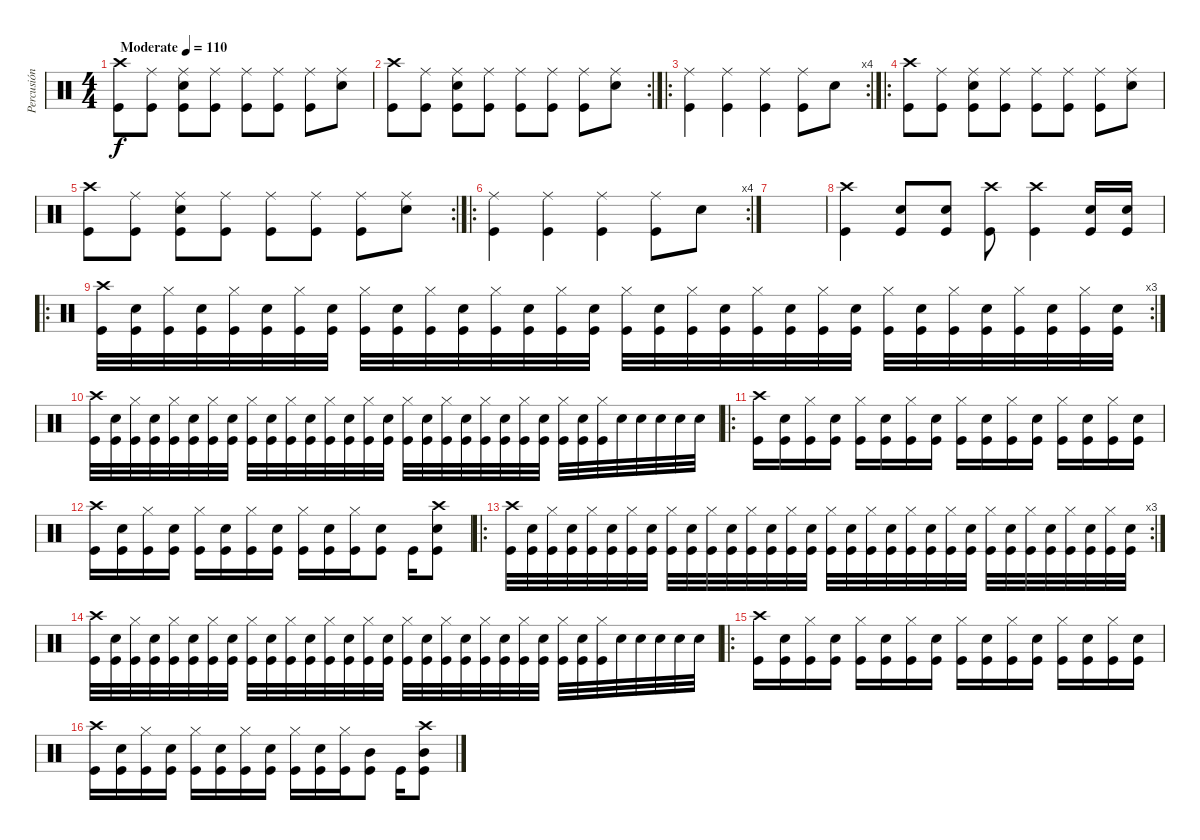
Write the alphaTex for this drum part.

\track ("Percusión" "Percusión") {instrument percussion}
\staff {score}
\articulation defaults
\ts (4 4)
\tempo (110 "Moderate")
\clef neutral
\ks c
("Crash high (hit)" "Kick (hit)").8{dy f} ("Ride (middle)" "Kick (hit)").8 ("Ride (middle)" "Electric Snare (hit)" "Kick (hit)").8 ("Ride (middle)" "Kick (hit)").8 ("Ride (middle)" "Kick (hit)").8 ("Ride (middle)" "Kick (hit)").8 ("Ride (middle)" "Kick (hit)").8 ("Ride (middle)" "Electric Snare (hit)").8 |
\rc 2
("Crash high (hit)" "Kick (hit)").8 ("Ride (middle)" "Kick (hit)").8 ("Ride (middle)" "Electric Snare (hit)" "Kick (hit)").8 ("Ride (middle)" "Kick (hit)").8 ("Ride (middle)" "Kick (hit)").8 ("Ride (middle)" "Kick (hit)").8 ("Ride (middle)" "Kick (hit)").8 ("Ride (middle)" "Electric Snare (hit)").8 |
\ro
\rc 4
("Ride (middle)" "Kick (hit)").4 ("Ride (middle)" "Kick (hit)").4 ("Ride (middle)" "Kick (hit)").4 ("Ride (middle)" "Kick (hit)").8 "Electric Snare (hit)".8 |
\ro
("Crash high (hit)" "Kick (hit)").8 ("Ride (middle)" "Kick (hit)").8 ("Ride (middle)" "Electric Snare (hit)" "Kick (hit)").8 ("Ride (middle)" "Kick (hit)").8 ("Ride (middle)" "Kick (hit)").8 ("Ride (middle)" "Kick (hit)").8 ("Ride (middle)" "Kick (hit)").8 ("Ride (middle)" "Electric Snare (hit)").8 |
\rc 2
("Crash high (hit)" "Kick (hit)").8 ("Ride (middle)" "Kick (hit)").8 ("Ride (middle)" "Electric Snare (hit)" "Kick (hit)").8 ("Ride (middle)" "Kick (hit)").8 ("Ride (middle)" "Kick (hit)").8 ("Ride (middle)" "Kick (hit)").8 ("Ride (middle)" "Kick (hit)").8 ("Ride (middle)" "Electric Snare (hit)").8 |
\ro
\rc 4
("Ride (middle)" "Kick (hit)").4 ("Ride (middle)" "Kick (hit)").4 ("Ride (middle)" "Kick (hit)").4 ("Ride (middle)" "Kick (hit)").8 "Electric Snare (hit)".8 |
|
("Crash high (hit)" "Kick (hit)").4 ("Electric Snare (hit)" "Kick (hit)").8 ("Electric Snare (hit)" "Kick (hit)").8 ("Crash high (hit)" "Kick (hit)").8 ("Crash high (hit)" "Kick (hit)").4 ("Electric Snare (hit)" "Kick (hit)").16 ("Electric Snare (hit)" "Kick (hit)").16 |
\ro
\rc 3
("Crash high (hit)" "Kick (hit)").32 ("Electric Snare (hit)" "Kick (hit)").32 ("Hi-Hat (closed)" "Kick (hit)").32 ("Electric Snare (hit)" "Kick (hit)").32 ("Hi-Hat (closed)" "Kick (hit)").32 ("Electric Snare (hit)" "Kick (hit)").32 ("Hi-Hat (closed)" "Kick (hit)").32 ("Electric Snare (hit)" "Kick (hit)").32 ("Hi-Hat (closed)" "Kick (hit)").32 ("Electric Snare (hit)" "Kick (hit)").32 ("Hi-Hat (closed)" "Kick (hit)").32 ("Electric Snare (hit)" "Kick (hit)").32 ("Hi-Hat (closed)" "Kick (hit)").32 ("Electric Snare (hit)" "Kick (hit)").32 ("Hi-Hat (closed)" "Kick (hit)").32 ("Electric Snare (hit)" "Kick (hit)").32 ("Hi-Hat (closed)" "Kick (hit)").32 ("Electric Snare (hit)" "Kick (hit)").32 ("Hi-Hat (closed)" "Kick (hit)").32 ("Electric Snare (hit)" "Kick (hit)").32 ("Hi-Hat (closed)" "Kick (hit)").32 ("Electric Snare (hit)" "Kick (hit)").32 ("Hi-Hat (closed)" "Kick (hit)").32 ("Electric Snare (hit)" "Kick (hit)").32 ("Hi-Hat (closed)" "Kick (hit)").32 ("Electric Snare (hit)" "Kick (hit)").32 ("Hi-Hat (closed)" "Kick (hit)").32 ("Electric Snare (hit)" "Kick (hit)").32 ("Hi-Hat (closed)" "Kick (hit)").32 ("Electric Snare (hit)" "Kick (hit)").32 ("Hi-Hat (closed)" "Kick (hit)").32 ("Electric Snare (hit)" "Kick (hit)").32 |
("Crash high (hit)" "Kick (hit)").32 ("Electric Snare (hit)" "Kick (hit)").32 ("Hi-Hat (closed)" "Kick (hit)").32 ("Electric Snare (hit)" "Kick (hit)").32 ("Hi-Hat (closed)" "Kick (hit)").32 ("Electric Snare (hit)" "Kick (hit)").32 ("Hi-Hat (closed)" "Kick (hit)").32 ("Electric Snare (hit)" "Kick (hit)").32 ("Hi-Hat (closed)" "Kick (hit)").32 ("Electric Snare (hit)" "Kick (hit)").32 ("Hi-Hat (closed)" "Kick (hit)").32 ("Electric Snare (hit)" "Kick (hit)").32 ("Hi-Hat (closed)" "Kick (hit)").32 ("Electric Snare (hit)" "Kick (hit)").32 ("Hi-Hat (closed)" "Kick (hit)").32 ("Electric Snare (hit)" "Kick (hit)").32 ("Hi-Hat (closed)" "Kick (hit)").32 ("Electric Snare (hit)" "Kick (hit)").32 ("Hi-Hat (closed)" "Kick (hit)").32 ("Electric Snare (hit)" "Kick (hit)").32 ("Hi-Hat (closed)" "Kick (hit)").32 ("Electric Snare (hit)" "Kick (hit)").32 ("Hi-Hat (closed)" "Kick (hit)").32 ("Electric Snare (hit)" "Kick (hit)").32 ("Hi-Hat (closed)" "Kick (hit)").32 ("Electric Snare (hit)" "Kick (hit)").32 ("Hi-Hat (closed)" "Kick (hit)").32 "Electric Snare (hit)".32 "Electric Snare (hit)".32 "Electric Snare (hit)".32 "Electric Snare (hit)".32 "Electric Snare (hit)".32 |
\ro
("Crash high (hit)" "Kick (hit)").16 ("Electric Snare (hit)" "Kick (hit)").16 ("Hi-Hat (closed)" "Kick (hit)").16 ("Electric Snare (hit)" "Kick (hit)").16 ("Hi-Hat (closed)" "Kick (hit)").16 ("Electric Snare (hit)" "Kick (hit)").16 ("Hi-Hat (closed)" "Kick (hit)").16 ("Electric Snare (hit)" "Kick (hit)").16 ("Hi-Hat (closed)" "Kick (hit)").16 ("Electric Snare (hit)" "Kick (hit)").16 ("Hi-Hat (closed)" "Kick (hit)").16 ("Electric Snare (hit)" "Kick (hit)").16 ("Hi-Hat (closed)" "Kick (hit)").16 ("Electric Snare (hit)" "Kick (hit)").16 ("Hi-Hat (closed)" "Kick (hit)").16 ("Electric Snare (hit)" "Kick (hit)").16 |
("Crash high (hit)" "Kick (hit)").16 ("Electric Snare (hit)" "Kick (hit)").16 ("Hi-Hat (closed)" "Kick (hit)").16 ("Electric Snare (hit)" "Kick (hit)").16 ("Hi-Hat (closed)" "Kick (hit)").16 ("Electric Snare (hit)" "Kick (hit)").16 ("Hi-Hat (closed)" "Kick (hit)").16 ("Electric Snare (hit)" "Kick (hit)").16 ("Hi-Hat (closed)" "Kick (hit)").16 ("Electric Snare (hit)" "Kick (hit)").16 ("Hi-Hat (closed)" "Kick (hit)").16 ("Snare (hit) 2" "Kick (hit)").8 "Kick (hit)".16 ("Crash high (hit)" "Snare (hit) 2" "Kick (hit)").8 |
\ro
\rc 3
("Crash high (hit)" "Kick (hit)").32 ("Electric Snare (hit)" "Kick (hit)").32 ("Hi-Hat (closed)" "Kick (hit)").32 ("Electric Snare (hit)" "Kick (hit)").32 ("Hi-Hat (closed)" "Kick (hit)").32 ("Electric Snare (hit)" "Kick (hit)").32 ("Hi-Hat (closed)" "Kick (hit)").32 ("Electric Snare (hit)" "Kick (hit)").32 ("Hi-Hat (closed)" "Kick (hit)").32 ("Electric Snare (hit)" "Kick (hit)").32 ("Hi-Hat (closed)" "Kick (hit)").32 ("Electric Snare (hit)" "Kick (hit)").32 ("Hi-Hat (closed)" "Kick (hit)").32 ("Electric Snare (hit)" "Kick (hit)").32 ("Hi-Hat (closed)" "Kick (hit)").32 ("Electric Snare (hit)" "Kick (hit)").32 ("Hi-Hat (closed)" "Kick (hit)").32 ("Electric Snare (hit)" "Kick (hit)").32 ("Hi-Hat (closed)" "Kick (hit)").32 ("Electric Snare (hit)" "Kick (hit)").32 ("Hi-Hat (closed)" "Kick (hit)").32 ("Electric Snare (hit)" "Kick (hit)").32 ("Hi-Hat (closed)" "Kick (hit)").32 ("Electric Snare (hit)" "Kick (hit)").32 ("Hi-Hat (closed)" "Kick (hit)").32 ("Electric Snare (hit)" "Kick (hit)").32 ("Hi-Hat (closed)" "Kick (hit)").32 ("Electric Snare (hit)" "Kick (hit)").32 ("Hi-Hat (closed)" "Kick (hit)").32 ("Electric Snare (hit)" "Kick (hit)").32 ("Hi-Hat (closed)" "Kick (hit)").32 ("Electric Snare (hit)" "Kick (hit)").32 |
("Crash high (hit)" "Kick (hit)").32 ("Electric Snare (hit)" "Kick (hit)").32 ("Hi-Hat (closed)" "Kick (hit)").32 ("Electric Snare (hit)" "Kick (hit)").32 ("Hi-Hat (closed)" "Kick (hit)").32 ("Electric Snare (hit)" "Kick (hit)").32 ("Hi-Hat (closed)" "Kick (hit)").32 ("Electric Snare (hit)" "Kick (hit)").32 ("Hi-Hat (closed)" "Kick (hit)").32 ("Electric Snare (hit)" "Kick (hit)").32 ("Hi-Hat (closed)" "Kick (hit)").32 ("Electric Snare (hit)" "Kick (hit)").32 ("Hi-Hat (closed)" "Kick (hit)").32 ("Electric Snare (hit)" "Kick (hit)").32 ("Hi-Hat (closed)" "Kick (hit)").32 ("Electric Snare (hit)" "Kick (hit)").32 ("Hi-Hat (closed)" "Kick (hit)").32 ("Electric Snare (hit)" "Kick (hit)").32 ("Hi-Hat (closed)" "Kick (hit)").32 ("Electric Snare (hit)" "Kick (hit)").32 ("Hi-Hat (closed)" "Kick (hit)").32 ("Electric Snare (hit)" "Kick (hit)").32 ("Hi-Hat (closed)" "Kick (hit)").32 ("Electric Snare (hit)" "Kick (hit)").32 ("Hi-Hat (closed)" "Kick (hit)").32 ("Electric Snare (hit)" "Kick (hit)").32 ("Hi-Hat (closed)" "Kick (hit)").32 "Electric Snare (hit)".32 "Electric Snare (hit)".32 "Electric Snare (hit)".32 "Electric Snare (hit)".32 "Electric Snare (hit)".32 |
\ro
("Crash high (hit)" "Kick (hit)").16 ("Electric Snare (hit)" "Kick (hit)").16 ("Hi-Hat (closed)" "Kick (hit)").16 ("Electric Snare (hit)" "Kick (hit)").16 ("Hi-Hat (closed)" "Kick (hit)").16 ("Electric Snare (hit)" "Kick (hit)").16 ("Hi-Hat (closed)" "Kick (hit)").16 ("Electric Snare (hit)" "Kick (hit)").16 ("Hi-Hat (closed)" "Kick (hit)").16 ("Electric Snare (hit)" "Kick (hit)").16 ("Hi-Hat (closed)" "Kick (hit)").16 ("Electric Snare (hit)" "Kick (hit)").16 ("Hi-Hat (closed)" "Kick (hit)").16 ("Electric Snare (hit)" "Kick (hit)").16 ("Hi-Hat (closed)" "Kick (hit)").16 ("Electric Snare (hit)" "Kick (hit)").16 |
("Crash high (hit)" "Kick (hit)").16 ("Electric Snare (hit)" "Kick (hit)").16 ("Hi-Hat (closed)" "Kick (hit)").16 ("Electric Snare (hit)" "Kick (hit)").16 ("Hi-Hat (closed)" "Kick (hit)").16 ("Electric Snare (hit)" "Kick (hit)").16 ("Hi-Hat (closed)" "Kick (hit)").16 ("Electric Snare (hit)" "Kick (hit)").16 ("Hi-Hat (closed)" "Kick (hit)").16 ("Electric Snare (hit)" "Kick (hit)").16 ("Hi-Hat (closed)" "Kick (hit)").16 ("Mid Tom (hit)" "Kick (hit)").8 "Kick (hit)".16 ("Crash high (hit)" "Mid Tom (hit)" "Kick (hit)").8
